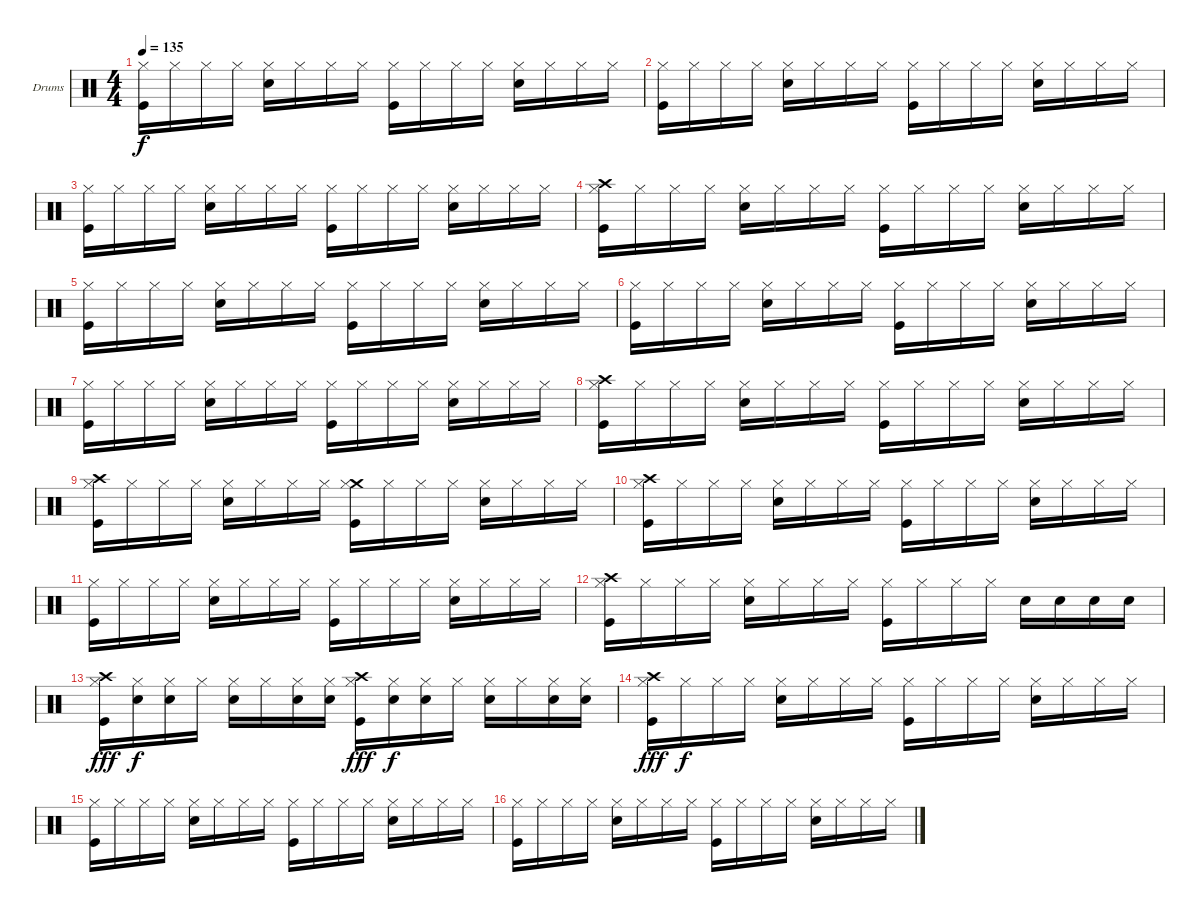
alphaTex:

\bracketExtendMode groupsimilarinstruments
\firstSystemTrackNameOrientation horizontal
\otherSystemsTrackNameOrientation horizontal
\track ("Ударные" "Drums") {instrument percussion}
\staff {score}
\articulation defaults
\ts (4 4)
\tempo 135
\clef neutral
\ks c
("Hi-Hat (closed)" "Kick (hit)").16{dy f} "Hi-Hat (closed)".16 "Hi-Hat (closed)".16 "Hi-Hat (closed)".16 ("Hi-Hat (closed)" "Snare (hit) 2").16 "Hi-Hat (closed)".16 "Hi-Hat (closed)".16 "Hi-Hat (closed)".16 ("Hi-Hat (closed)" "Kick (hit)").16 "Hi-Hat (closed)".16 "Hi-Hat (closed)".16 "Hi-Hat (closed)".16 ("Hi-Hat (closed)" "Snare (hit) 2").16 "Hi-Hat (closed)".16 "Hi-Hat (closed)".16 "Hi-Hat (closed)".16 |
("Hi-Hat (closed)" "Kick (hit)").16 "Hi-Hat (closed)".16 "Hi-Hat (closed)".16 "Hi-Hat (closed)".16 ("Hi-Hat (closed)" "Snare (hit) 2").16 "Hi-Hat (closed)".16 "Hi-Hat (closed)".16 "Hi-Hat (closed)".16 ("Hi-Hat (closed)" "Kick (hit)").16 "Hi-Hat (closed)".16 "Hi-Hat (closed)".16 "Hi-Hat (closed)".16 ("Hi-Hat (closed)" "Snare (hit) 2").16 "Hi-Hat (closed)".16 "Hi-Hat (closed)".16 "Hi-Hat (closed)".16 |
("Hi-Hat (closed)" "Kick (hit)").16 "Hi-Hat (closed)".16 "Hi-Hat (closed)".16 "Hi-Hat (closed)".16 ("Hi-Hat (closed)" "Snare (hit) 2").16 "Hi-Hat (closed)".16 "Hi-Hat (closed)".16 "Hi-Hat (closed)".16 ("Hi-Hat (closed)" "Kick (hit)").16 "Hi-Hat (closed)".16 "Hi-Hat (closed)".16 "Hi-Hat (closed)".16 ("Hi-Hat (closed)" "Snare (hit) 2").16 "Hi-Hat (closed)".16 "Hi-Hat (closed)".16 "Hi-Hat (closed)".16 |
("Crash high (hit)" "Hi-Hat (closed)" "Kick (hit)").16 "Hi-Hat (closed)".16 "Hi-Hat (closed)".16 "Hi-Hat (closed)".16 ("Hi-Hat (closed)" "Snare (hit) 2").16 "Hi-Hat (closed)".16 "Hi-Hat (closed)".16 "Hi-Hat (closed)".16 ("Hi-Hat (closed)" "Kick (hit)").16 "Hi-Hat (closed)".16 "Hi-Hat (closed)".16 "Hi-Hat (closed)".16 ("Hi-Hat (closed)" "Snare (hit) 2").16 "Hi-Hat (closed)".16 "Hi-Hat (closed)".16 "Hi-Hat (closed)".16 |
("Hi-Hat (closed)" "Kick (hit)").16 "Hi-Hat (closed)".16 "Hi-Hat (closed)".16 "Hi-Hat (closed)".16 ("Hi-Hat (closed)" "Snare (hit) 2").16 "Hi-Hat (closed)".16 "Hi-Hat (closed)".16 "Hi-Hat (closed)".16 ("Hi-Hat (closed)" "Kick (hit)").16 "Hi-Hat (closed)".16 "Hi-Hat (closed)".16 "Hi-Hat (closed)".16 ("Hi-Hat (closed)" "Snare (hit) 2").16 "Hi-Hat (closed)".16 "Hi-Hat (closed)".16 "Hi-Hat (closed)".16 |
("Hi-Hat (closed)" "Kick (hit)").16 "Hi-Hat (closed)".16 "Hi-Hat (closed)".16 "Hi-Hat (closed)".16 ("Hi-Hat (closed)" "Snare (hit) 2").16 "Hi-Hat (closed)".16 "Hi-Hat (closed)".16 "Hi-Hat (closed)".16 ("Hi-Hat (closed)" "Kick (hit)").16 "Hi-Hat (closed)".16 "Hi-Hat (closed)".16 "Hi-Hat (closed)".16 ("Hi-Hat (closed)" "Snare (hit) 2").16 "Hi-Hat (closed)".16 "Hi-Hat (closed)".16 "Hi-Hat (closed)".16 |
("Hi-Hat (closed)" "Kick (hit)").16 "Hi-Hat (closed)".16 "Hi-Hat (closed)".16 "Hi-Hat (closed)".16 ("Hi-Hat (closed)" "Snare (hit) 2").16 "Hi-Hat (closed)".16 "Hi-Hat (closed)".16 "Hi-Hat (closed)".16 ("Hi-Hat (closed)" "Kick (hit)").16 "Hi-Hat (closed)".16 "Hi-Hat (closed)".16 "Hi-Hat (closed)".16 ("Hi-Hat (closed)" "Snare (hit) 2").16 "Hi-Hat (closed)".16 "Hi-Hat (closed)".16 "Hi-Hat (closed)".16 |
("Crash high (hit)" "Hi-Hat (closed)" "Kick (hit)").16 "Hi-Hat (closed)".16 "Hi-Hat (closed)".16 "Hi-Hat (closed)".16 ("Hi-Hat (closed)" "Snare (hit) 2").16 "Hi-Hat (closed)".16 "Hi-Hat (closed)".16 "Hi-Hat (closed)".16 ("Hi-Hat (closed)" "Kick (hit)").16 "Hi-Hat (closed)".16 "Hi-Hat (closed)".16 "Hi-Hat (closed)".16 ("Hi-Hat (closed)" "Snare (hit) 2").16 "Hi-Hat (closed)".16 "Hi-Hat (closed)".16 "Hi-Hat (closed)".16 |
("Crash high (hit)" "Hi-Hat (closed)" "Kick (hit)").16 "Hi-Hat (closed)".16 "Hi-Hat (closed)".16 "Hi-Hat (closed)".16 ("Hi-Hat (closed)" "Snare (hit) 2").16 "Hi-Hat (closed)".16 "Hi-Hat (closed)".16 "Hi-Hat (closed)".16 ("Crash medium (hit)" "Hi-Hat (closed)" "Kick (hit)").16 "Hi-Hat (closed)".16 "Hi-Hat (closed)".16 "Hi-Hat (closed)".16 ("Hi-Hat (closed)" "Snare (hit) 2").16 "Hi-Hat (closed)".16 "Hi-Hat (closed)".16 "Hi-Hat (closed)".16 |
("Crash high (hit)" "Hi-Hat (closed)" "Kick (hit)").16 "Hi-Hat (closed)".16 "Hi-Hat (closed)".16 "Hi-Hat (closed)".16 ("Hi-Hat (closed)" "Snare (hit) 2").16 "Hi-Hat (closed)".16 "Hi-Hat (closed)".16 "Hi-Hat (closed)".16 ("Hi-Hat (closed)" "Kick (hit)").16 "Hi-Hat (closed)".16 "Hi-Hat (closed)".16 "Hi-Hat (closed)".16 ("Hi-Hat (closed)" "Snare (hit) 2").16 "Hi-Hat (closed)".16 "Hi-Hat (closed)".16 "Hi-Hat (closed)".16 |
("Hi-Hat (closed)" "Kick (hit)").16 "Hi-Hat (closed)".16 "Hi-Hat (closed)".16 "Hi-Hat (closed)".16 ("Hi-Hat (closed)" "Snare (hit) 2").16 "Hi-Hat (closed)".16 "Hi-Hat (closed)".16 "Hi-Hat (closed)".16 ("Hi-Hat (closed)" "Kick (hit)").16 "Hi-Hat (closed)".16 "Hi-Hat (closed)".16 "Hi-Hat (closed)".16 ("Hi-Hat (closed)" "Snare (hit) 2").16 "Hi-Hat (closed)".16 "Hi-Hat (closed)".16 "Hi-Hat (closed)".16 |
("Crash high (hit)" "Hi-Hat (closed)" "Kick (hit)").16 "Hi-Hat (closed)".16 "Hi-Hat (closed)".16 "Hi-Hat (closed)".16 ("Hi-Hat (closed)" "Snare (hit) 2").16 "Hi-Hat (closed)".16 "Hi-Hat (closed)".16 "Hi-Hat (closed)".16 ("Hi-Hat (closed)" "Kick (hit)").16 "Hi-Hat (closed)".16 "Hi-Hat (closed)".16 "Hi-Hat (closed)".16 "Snare (hit) 2".16 "Snare (hit) 2".16 "Snare (hit) 2".16 "Snare (hit) 2".16 |
("Crash high (hit)" "Hi-Hat (closed)" "Kick (hit)").16{dy fff} ("Hi-Hat (closed)" "Snare (hit) 2").16{dy f} ("Hi-Hat (closed)" "Snare (hit) 2").16 "Hi-Hat (closed)".16 ("Hi-Hat (closed)" "Snare (hit) 2").16 "Hi-Hat (closed)".16 ("Hi-Hat (closed)" "Snare (hit) 2").16 ("Hi-Hat (closed)" "Snare (hit) 2").16 ("Crash high (hit)" "Hi-Hat (closed)" "Kick (hit)").16{dy fff} ("Hi-Hat (closed)" "Snare (hit) 2").16{dy f} ("Hi-Hat (closed)" "Snare (hit) 2").16 "Hi-Hat (closed)".16 ("Hi-Hat (closed)" "Snare (hit) 2").16 "Hi-Hat (closed)".16 ("Hi-Hat (closed)" "Snare (hit) 2").16 ("Hi-Hat (closed)" "Snare (hit) 2").16 |
("Crash high (hit)" "Hi-Hat (closed)" "Kick (hit)").16{dy fff} "Hi-Hat (closed)".16{dy f} "Hi-Hat (closed)".16 "Hi-Hat (closed)".16 ("Hi-Hat (closed)" "Snare (hit) 2").16 "Hi-Hat (closed)".16 "Hi-Hat (closed)".16 "Hi-Hat (closed)".16 ("Hi-Hat (closed)" "Kick (hit)").16 "Hi-Hat (closed)".16 "Hi-Hat (closed)".16 "Hi-Hat (closed)".16 ("Hi-Hat (closed)" "Snare (hit) 2").16 "Hi-Hat (closed)".16 "Hi-Hat (closed)".16 "Hi-Hat (closed)".16 |
("Hi-Hat (closed)" "Kick (hit)").16 "Hi-Hat (closed)".16 "Hi-Hat (closed)".16 "Hi-Hat (closed)".16 ("Hi-Hat (closed)" "Snare (hit) 2").16 "Hi-Hat (closed)".16 "Hi-Hat (closed)".16 "Hi-Hat (closed)".16 ("Hi-Hat (closed)" "Kick (hit)").16 "Hi-Hat (closed)".16 "Hi-Hat (closed)".16 "Hi-Hat (closed)".16 ("Hi-Hat (closed)" "Snare (hit) 2").16 "Hi-Hat (closed)".16 "Hi-Hat (closed)".16 "Hi-Hat (closed)".16 |
("Hi-Hat (closed)" "Kick (hit)").16 "Hi-Hat (closed)".16 "Hi-Hat (closed)".16 "Hi-Hat (closed)".16 ("Hi-Hat (closed)" "Snare (hit) 2").16 "Hi-Hat (closed)".16 "Hi-Hat (closed)".16 "Hi-Hat (closed)".16 ("Hi-Hat (closed)" "Kick (hit)").16 "Hi-Hat (closed)".16 "Hi-Hat (closed)".16 "Hi-Hat (closed)".16 ("Hi-Hat (closed)" "Snare (hit) 2").16 "Hi-Hat (closed)".16 "Hi-Hat (closed)".16 "Hi-Hat (closed)".16
